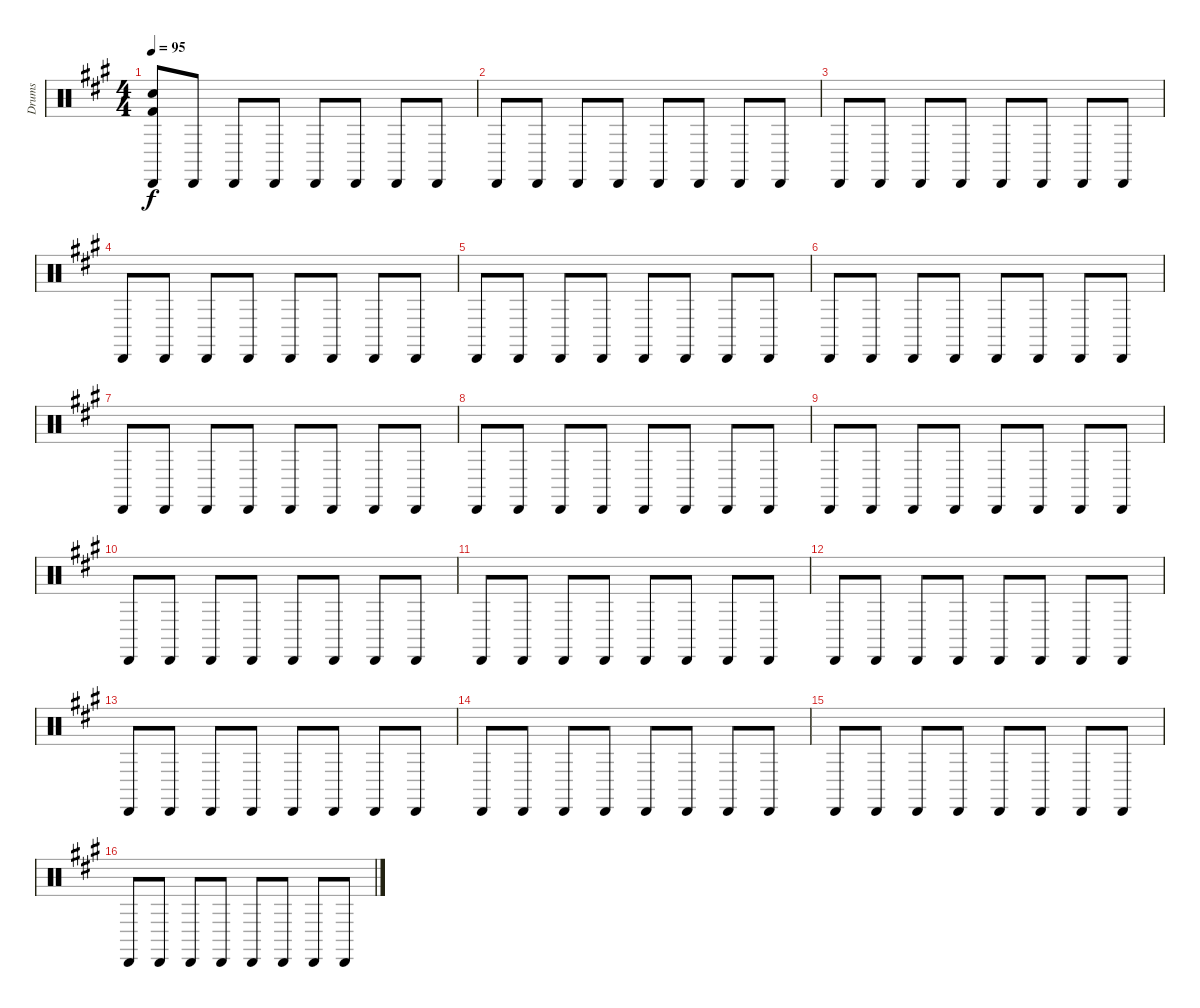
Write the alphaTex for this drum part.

\track ("Drums" "Drums") {instrument percussion}
\staff {score}
\articulation defaults
\ts (4 4)
\tempo 95
\clef neutral
\ks a
("Cabasa (hit)" "Snare (hit) 2" "Kick (hit) 2").8{dy f} "Cabasa (hit)".8 "Cabasa (hit)".8 "Cabasa (hit)".8 "Cabasa (hit)".8 "Cabasa (hit)".8 "Cabasa (hit)".8 "Cabasa (hit)".8 |
"Cabasa (hit)".8 "Cabasa (hit)".8 "Cabasa (hit)".8 "Cabasa (hit)".8 "Cabasa (hit)".8 "Cabasa (hit)".8 "Cabasa (hit)".8 "Cabasa (hit)".8 |
"Cabasa (hit)".8 "Cabasa (hit)".8 "Cabasa (hit)".8 "Cabasa (hit)".8 "Cabasa (hit)".8 "Cabasa (hit)".8 "Cabasa (hit)".8 "Cabasa (hit)".8 |
"Cabasa (hit)".8 "Cabasa (hit)".8 "Cabasa (hit)".8 "Cabasa (hit)".8 "Cabasa (hit)".8 "Cabasa (hit)".8 "Cabasa (hit)".8 "Cabasa (hit)".8 |
"Cabasa (hit)".8 "Cabasa (hit)".8 "Cabasa (hit)".8 "Cabasa (hit)".8 "Cabasa (hit)".8 "Cabasa (hit)".8 "Cabasa (hit)".8 "Cabasa (hit)".8 |
"Cabasa (hit)".8 "Cabasa (hit)".8 "Cabasa (hit)".8 "Cabasa (hit)".8 "Cabasa (hit)".8 "Cabasa (hit)".8 "Cabasa (hit)".8 "Cabasa (hit)".8 |
"Cabasa (hit)".8 "Cabasa (hit)".8 "Cabasa (hit)".8 "Cabasa (hit)".8 "Cabasa (hit)".8 "Cabasa (hit)".8 "Cabasa (hit)".8 "Cabasa (hit)".8 |
"Cabasa (hit)".8 "Cabasa (hit)".8 "Cabasa (hit)".8 "Cabasa (hit)".8 "Cabasa (hit)".8 "Cabasa (hit)".8 "Cabasa (hit)".8 "Cabasa (hit)".8 |
"Cabasa (hit)".8 "Cabasa (hit)".8 "Cabasa (hit)".8 "Cabasa (hit)".8 "Cabasa (hit)".8 "Cabasa (hit)".8 "Cabasa (hit)".8 "Cabasa (hit)".8 |
"Cabasa (hit)".8 "Cabasa (hit)".8 "Cabasa (hit)".8 "Cabasa (hit)".8 "Cabasa (hit)".8 "Cabasa (hit)".8 "Cabasa (hit)".8 "Cabasa (hit)".8 |
"Cabasa (hit)".8 "Cabasa (hit)".8 "Cabasa (hit)".8 "Cabasa (hit)".8 "Cabasa (hit)".8 "Cabasa (hit)".8 "Cabasa (hit)".8 "Cabasa (hit)".8 |
"Cabasa (hit)".8 "Cabasa (hit)".8 "Cabasa (hit)".8 "Cabasa (hit)".8 "Cabasa (hit)".8 "Cabasa (hit)".8 "Cabasa (hit)".8 "Cabasa (hit)".8 |
"Cabasa (hit)".8 "Cabasa (hit)".8 "Cabasa (hit)".8 "Cabasa (hit)".8 "Cabasa (hit)".8 "Cabasa (hit)".8 "Cabasa (hit)".8 "Cabasa (hit)".8 |
"Cabasa (hit)".8 "Cabasa (hit)".8 "Cabasa (hit)".8 "Cabasa (hit)".8 "Cabasa (hit)".8 "Cabasa (hit)".8 "Cabasa (hit)".8 "Cabasa (hit)".8 |
"Cabasa (hit)".8 "Cabasa (hit)".8 "Cabasa (hit)".8 "Cabasa (hit)".8 "Cabasa (hit)".8 "Cabasa (hit)".8 "Cabasa (hit)".8 "Cabasa (hit)".8 |
"Cabasa (hit)".8 "Cabasa (hit)".8 "Cabasa (hit)".8 "Cabasa (hit)".8 "Cabasa (hit)".8 "Cabasa (hit)".8 "Cabasa (hit)".8 "Cabasa (hit)".8
